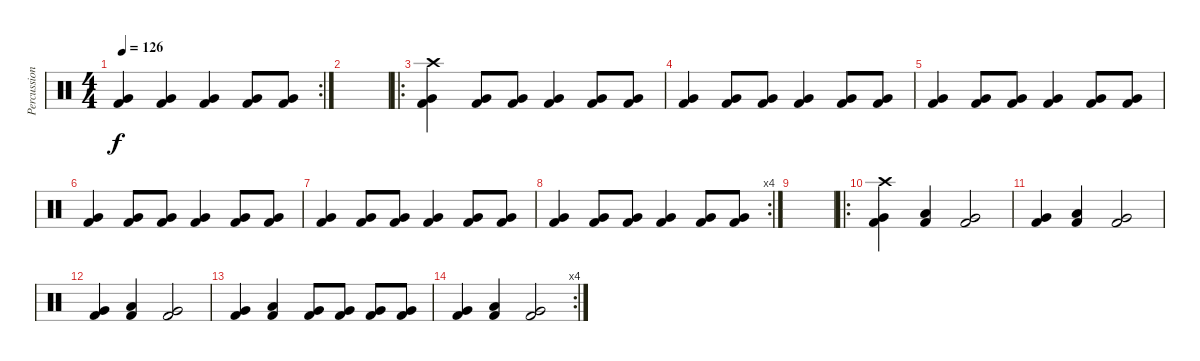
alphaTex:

\track ("Percussion" "Percussion") {instrument percussion}
\staff {score}
\articulation defaults
\rc 2
\ts (4 4)
\tempo 126
\clef neutral
\ks c
("Very Low Tom (hit)" "Kick (hit) 2").4{dy f} ("Very Low Tom (hit)" "Kick (hit) 2").4 ("Very Low Tom (hit)" "Kick (hit) 2").4 ("Very Low Tom (hit)" "Kick (hit) 2").8 ("Very Low Tom (hit)" "Kick (hit) 2").8 |
|
\ro
("Crash high (hit)" "Very Low Tom (hit)" "Kick (hit) 2").4 ("Very Low Tom (hit)" "Kick (hit) 2").8 ("Very Low Tom (hit)" "Kick (hit) 2").8 ("Very Low Tom (hit)" "Kick (hit) 2").4 ("Very Low Tom (hit)" "Kick (hit) 2").8 ("Very Low Tom (hit)" "Kick (hit) 2").8 |
("Very Low Tom (hit)" "Kick (hit) 2").4 ("Very Low Tom (hit)" "Kick (hit) 2").8 ("Very Low Tom (hit)" "Kick (hit) 2").8 ("Very Low Tom (hit)" "Kick (hit) 2").4 ("Very Low Tom (hit)" "Kick (hit) 2").8 ("Very Low Tom (hit)" "Kick (hit) 2").8 |
("Very Low Tom (hit)" "Kick (hit) 2").4 ("Very Low Tom (hit)" "Kick (hit) 2").8 ("Very Low Tom (hit)" "Kick (hit) 2").8 ("Very Low Tom (hit)" "Kick (hit) 2").4 ("Very Low Tom (hit)" "Kick (hit) 2").8 ("Very Low Tom (hit)" "Kick (hit) 2").8 |
("Very Low Tom (hit)" "Kick (hit) 2").4 ("Very Low Tom (hit)" "Kick (hit) 2").8 ("Very Low Tom (hit)" "Kick (hit) 2").8 ("Very Low Tom (hit)" "Kick (hit) 2").4 ("Very Low Tom (hit)" "Kick (hit) 2").8 ("Very Low Tom (hit)" "Kick (hit) 2").8 |
("Very Low Tom (hit)" "Kick (hit) 2").4 ("Very Low Tom (hit)" "Kick (hit) 2").8 ("Very Low Tom (hit)" "Kick (hit) 2").8 ("Very Low Tom (hit)" "Kick (hit) 2").4 ("Very Low Tom (hit)" "Kick (hit) 2").8 ("Very Low Tom (hit)" "Kick (hit) 2").8 |
\rc 4
("Very Low Tom (hit)" "Kick (hit) 2").4 ("Very Low Tom (hit)" "Kick (hit) 2").8 ("Very Low Tom (hit)" "Kick (hit) 2").8 ("Very Low Tom (hit)" "Kick (hit) 2").4 ("Very Low Tom (hit)" "Kick (hit) 2").8 ("Very Low Tom (hit)" "Kick (hit) 2").8 |
|
\ro
("Crash high (hit)" "Very Low Tom (hit)" "Kick (hit) 2").4 ("Low Floor Tom (hit)" "Kick (hit) 2").4 ("Very Low Tom (hit)" "Kick (hit) 2").2 |
("Very Low Tom (hit)" "Kick (hit) 2").4 ("Low Floor Tom (hit)" "Kick (hit) 2").4 ("Very Low Tom (hit)" "Kick (hit) 2").2 |
("Very Low Tom (hit)" "Kick (hit) 2").4 ("Low Floor Tom (hit)" "Kick (hit) 2").4 ("Very Low Tom (hit)" "Kick (hit) 2").2 |
("Very Low Tom (hit)" "Kick (hit) 2").4 ("Low Floor Tom (hit)" "Kick (hit) 2").4 ("Very Low Tom (hit)" "Kick (hit) 2").8 ("Very Low Tom (hit)" "Kick (hit) 2").8 ("Very Low Tom (hit)" "Kick (hit) 2").8 ("Very Low Tom (hit)" "Kick (hit) 2").8 |
\rc 4
("Very Low Tom (hit)" "Kick (hit) 2").4 ("Low Floor Tom (hit)" "Kick (hit) 2").4 ("Very Low Tom (hit)" "Kick (hit) 2").2
